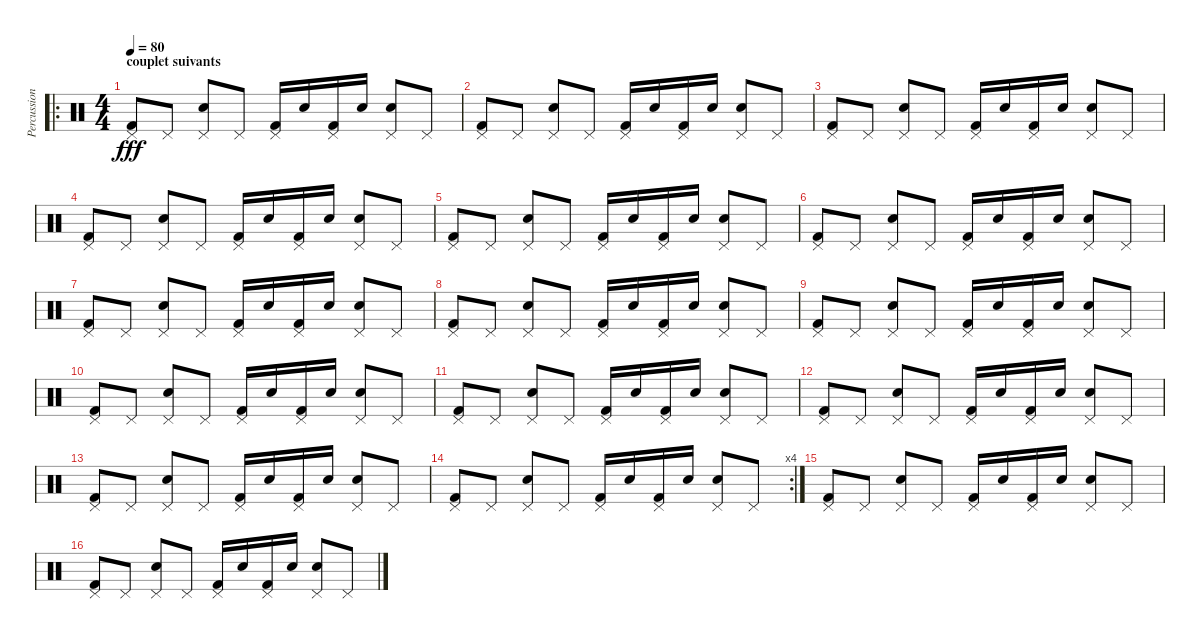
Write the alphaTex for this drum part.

\track ("Percussions" "Percussion") {instrument percussion}
\staff {score}
\articulation defaults
\ro
\ts (4 4)
\section ("" "couplet suivants")
\tempo 80
\clef neutral
\ks c
("Pedal Hi-Hat (hit)" "Kick (hit) 2").8{dy fff} "Pedal Hi-Hat (hit)".8 ("Pedal Hi-Hat (hit)" "Electric Snare (hit)").8 "Pedal Hi-Hat (hit)".8 ("Pedal Hi-Hat (hit)" "Kick (hit) 2").16 "Electric Snare (hit)".16 ("Pedal Hi-Hat (hit)" "Kick (hit) 2").16 "Electric Snare (hit)".16 ("Pedal Hi-Hat (hit)" "Electric Snare (hit)").8 "Pedal Hi-Hat (hit)".8 |
("Pedal Hi-Hat (hit)" "Kick (hit) 2").8 "Pedal Hi-Hat (hit)".8 ("Pedal Hi-Hat (hit)" "Electric Snare (hit)").8 "Pedal Hi-Hat (hit)".8 ("Pedal Hi-Hat (hit)" "Kick (hit) 2").16 "Electric Snare (hit)".16 ("Pedal Hi-Hat (hit)" "Kick (hit) 2").16 "Electric Snare (hit)".16 ("Pedal Hi-Hat (hit)" "Electric Snare (hit)").8 "Pedal Hi-Hat (hit)".8 |
("Pedal Hi-Hat (hit)" "Kick (hit) 2").8 "Pedal Hi-Hat (hit)".8 ("Pedal Hi-Hat (hit)" "Electric Snare (hit)").8 "Pedal Hi-Hat (hit)".8 ("Pedal Hi-Hat (hit)" "Kick (hit) 2").16 "Electric Snare (hit)".16 ("Pedal Hi-Hat (hit)" "Kick (hit) 2").16 "Electric Snare (hit)".16 ("Pedal Hi-Hat (hit)" "Electric Snare (hit)").8 "Pedal Hi-Hat (hit)".8 |
("Pedal Hi-Hat (hit)" "Kick (hit) 2").8 "Pedal Hi-Hat (hit)".8 ("Pedal Hi-Hat (hit)" "Electric Snare (hit)").8 "Pedal Hi-Hat (hit)".8 ("Pedal Hi-Hat (hit)" "Kick (hit) 2").16 "Electric Snare (hit)".16 ("Pedal Hi-Hat (hit)" "Kick (hit) 2").16 "Electric Snare (hit)".16 ("Pedal Hi-Hat (hit)" "Electric Snare (hit)").8 "Pedal Hi-Hat (hit)".8 |
("Pedal Hi-Hat (hit)" "Kick (hit) 2").8 "Pedal Hi-Hat (hit)".8 ("Pedal Hi-Hat (hit)" "Electric Snare (hit)").8 "Pedal Hi-Hat (hit)".8 ("Pedal Hi-Hat (hit)" "Kick (hit) 2").16 "Electric Snare (hit)".16 ("Pedal Hi-Hat (hit)" "Kick (hit) 2").16 "Electric Snare (hit)".16 ("Pedal Hi-Hat (hit)" "Electric Snare (hit)").8 "Pedal Hi-Hat (hit)".8 |
("Pedal Hi-Hat (hit)" "Kick (hit) 2").8 "Pedal Hi-Hat (hit)".8 ("Pedal Hi-Hat (hit)" "Electric Snare (hit)").8 "Pedal Hi-Hat (hit)".8 ("Pedal Hi-Hat (hit)" "Kick (hit) 2").16 "Electric Snare (hit)".16 ("Pedal Hi-Hat (hit)" "Kick (hit) 2").16 "Electric Snare (hit)".16 ("Pedal Hi-Hat (hit)" "Electric Snare (hit)").8 "Pedal Hi-Hat (hit)".8 |
("Pedal Hi-Hat (hit)" "Kick (hit) 2").8 "Pedal Hi-Hat (hit)".8 ("Pedal Hi-Hat (hit)" "Electric Snare (hit)").8 "Pedal Hi-Hat (hit)".8 ("Pedal Hi-Hat (hit)" "Kick (hit) 2").16 "Electric Snare (hit)".16 ("Pedal Hi-Hat (hit)" "Kick (hit) 2").16 "Electric Snare (hit)".16 ("Pedal Hi-Hat (hit)" "Electric Snare (hit)").8 "Pedal Hi-Hat (hit)".8 |
("Pedal Hi-Hat (hit)" "Kick (hit) 2").8 "Pedal Hi-Hat (hit)".8 ("Pedal Hi-Hat (hit)" "Electric Snare (hit)").8 "Pedal Hi-Hat (hit)".8 ("Pedal Hi-Hat (hit)" "Kick (hit) 2").16 "Electric Snare (hit)".16 ("Pedal Hi-Hat (hit)" "Kick (hit) 2").16 "Electric Snare (hit)".16 ("Pedal Hi-Hat (hit)" "Electric Snare (hit)").8 "Pedal Hi-Hat (hit)".8 |
("Pedal Hi-Hat (hit)" "Kick (hit) 2").8 "Pedal Hi-Hat (hit)".8 ("Pedal Hi-Hat (hit)" "Electric Snare (hit)").8 "Pedal Hi-Hat (hit)".8 ("Pedal Hi-Hat (hit)" "Kick (hit) 2").16 "Electric Snare (hit)".16 ("Pedal Hi-Hat (hit)" "Kick (hit) 2").16 "Electric Snare (hit)".16 ("Pedal Hi-Hat (hit)" "Electric Snare (hit)").8 "Pedal Hi-Hat (hit)".8 |
("Pedal Hi-Hat (hit)" "Kick (hit) 2").8 "Pedal Hi-Hat (hit)".8 ("Pedal Hi-Hat (hit)" "Electric Snare (hit)").8 "Pedal Hi-Hat (hit)".8 ("Pedal Hi-Hat (hit)" "Kick (hit) 2").16 "Electric Snare (hit)".16 ("Pedal Hi-Hat (hit)" "Kick (hit) 2").16 "Electric Snare (hit)".16 ("Pedal Hi-Hat (hit)" "Electric Snare (hit)").8 "Pedal Hi-Hat (hit)".8 |
("Pedal Hi-Hat (hit)" "Kick (hit) 2").8 "Pedal Hi-Hat (hit)".8 ("Pedal Hi-Hat (hit)" "Electric Snare (hit)").8 "Pedal Hi-Hat (hit)".8 ("Pedal Hi-Hat (hit)" "Kick (hit) 2").16 "Electric Snare (hit)".16 ("Pedal Hi-Hat (hit)" "Kick (hit) 2").16 "Electric Snare (hit)".16 ("Pedal Hi-Hat (hit)" "Electric Snare (hit)").8 "Pedal Hi-Hat (hit)".8 |
("Pedal Hi-Hat (hit)" "Kick (hit) 2").8 "Pedal Hi-Hat (hit)".8 ("Pedal Hi-Hat (hit)" "Electric Snare (hit)").8 "Pedal Hi-Hat (hit)".8 ("Pedal Hi-Hat (hit)" "Kick (hit) 2").16 "Electric Snare (hit)".16 ("Pedal Hi-Hat (hit)" "Kick (hit) 2").16 "Electric Snare (hit)".16 ("Pedal Hi-Hat (hit)" "Electric Snare (hit)").8 "Pedal Hi-Hat (hit)".8 |
("Pedal Hi-Hat (hit)" "Kick (hit) 2").8 "Pedal Hi-Hat (hit)".8 ("Pedal Hi-Hat (hit)" "Electric Snare (hit)").8 "Pedal Hi-Hat (hit)".8 ("Pedal Hi-Hat (hit)" "Kick (hit) 2").16 "Electric Snare (hit)".16 ("Pedal Hi-Hat (hit)" "Kick (hit) 2").16 "Electric Snare (hit)".16 ("Pedal Hi-Hat (hit)" "Electric Snare (hit)").8 "Pedal Hi-Hat (hit)".8 |
\rc 4
("Pedal Hi-Hat (hit)" "Kick (hit) 2").8 "Pedal Hi-Hat (hit)".8 ("Pedal Hi-Hat (hit)" "Electric Snare (hit)").8 "Pedal Hi-Hat (hit)".8 ("Pedal Hi-Hat (hit)" "Kick (hit) 2").16 "Electric Snare (hit)".16 ("Pedal Hi-Hat (hit)" "Kick (hit) 2").16 "Electric Snare (hit)".16 ("Pedal Hi-Hat (hit)" "Electric Snare (hit)").8 "Pedal Hi-Hat (hit)".8 |
("Pedal Hi-Hat (hit)" "Kick (hit) 2").8 "Pedal Hi-Hat (hit)".8 ("Pedal Hi-Hat (hit)" "Electric Snare (hit)").8 "Pedal Hi-Hat (hit)".8 ("Pedal Hi-Hat (hit)" "Kick (hit) 2").16 "Electric Snare (hit)".16 ("Pedal Hi-Hat (hit)" "Kick (hit) 2").16 "Electric Snare (hit)".16 ("Pedal Hi-Hat (hit)" "Electric Snare (hit)").8 "Pedal Hi-Hat (hit)".8 |
("Pedal Hi-Hat (hit)" "Kick (hit) 2").8 "Pedal Hi-Hat (hit)".8 ("Pedal Hi-Hat (hit)" "Electric Snare (hit)").8 "Pedal Hi-Hat (hit)".8 ("Pedal Hi-Hat (hit)" "Kick (hit) 2").16 "Electric Snare (hit)".16 ("Pedal Hi-Hat (hit)" "Kick (hit) 2").16 "Electric Snare (hit)".16 ("Pedal Hi-Hat (hit)" "Electric Snare (hit)").8 "Pedal Hi-Hat (hit)".8
